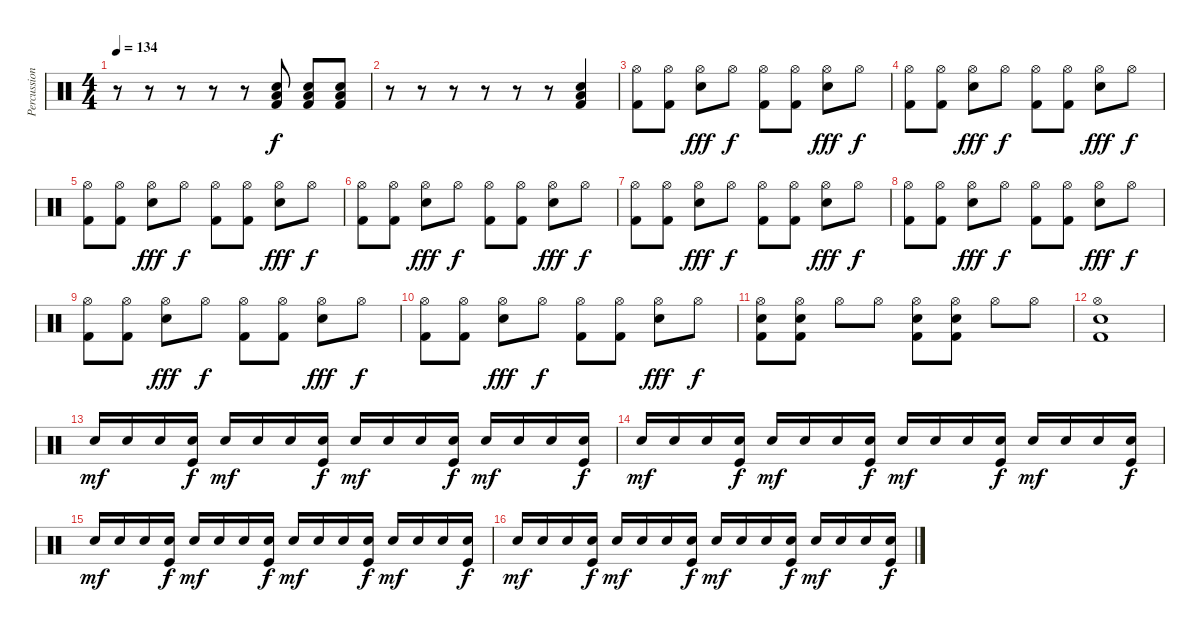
\track ("Percussion" "Percussion") {instrument percussion}
\staff {score}
\articulation defaults
\ts (4 4)
\tempo 134
\clef neutral
\ks c
r.8{dy f} r.8 r.8 r.8 r.8 ("Low Tom (hit)" "Snare (hit) 2" "Kick (hit) 2").8 ("Low Tom (hit)" "Snare (hit) 2" "Kick (hit) 2").8 ("Low Tom (hit)" "Snare (hit) 2" "Kick (hit) 2").8 |
r.8 r.8 r.8 r.8 r.8 r.8 ("Low Tom (hit)" "Snare (hit) 2" "Kick (hit) 2").4 |
("Hi-Hat (open)" "Kick (hit) 2").8 ("Hi-Hat (open)" "Kick (hit) 2").8 ("Hi-Hat (open)" "Snare (hit) 2").8{dy fff} "Hi-Hat (open)".8{dy f} ("Hi-Hat (open)" "Kick (hit) 2").8 ("Hi-Hat (open)" "Kick (hit) 2").8 ("Hi-Hat (open)" "Snare (hit) 2").8{dy fff} "Hi-Hat (open)".8{dy f} |
("Hi-Hat (open)" "Kick (hit) 2").8 ("Hi-Hat (open)" "Kick (hit) 2").8 ("Hi-Hat (open)" "Snare (hit) 2").8{dy fff} "Hi-Hat (open)".8{dy f} ("Hi-Hat (open)" "Kick (hit) 2").8 ("Hi-Hat (open)" "Kick (hit) 2").8 ("Hi-Hat (open)" "Snare (hit) 2").8{dy fff} "Hi-Hat (open)".8{dy f} |
("Hi-Hat (open)" "Kick (hit) 2").8 ("Hi-Hat (open)" "Kick (hit) 2").8 ("Hi-Hat (open)" "Snare (hit) 2").8{dy fff} "Hi-Hat (open)".8{dy f} ("Hi-Hat (open)" "Kick (hit) 2").8 ("Hi-Hat (open)" "Kick (hit) 2").8 ("Hi-Hat (open)" "Snare (hit) 2").8{dy fff} "Hi-Hat (open)".8{dy f} |
("Hi-Hat (open)" "Kick (hit) 2").8 ("Hi-Hat (open)" "Kick (hit) 2").8 ("Hi-Hat (open)" "Snare (hit) 2").8{dy fff} "Hi-Hat (open)".8{dy f} ("Hi-Hat (open)" "Kick (hit) 2").8 ("Hi-Hat (open)" "Kick (hit) 2").8 ("Hi-Hat (open)" "Snare (hit) 2").8{dy fff} "Hi-Hat (open)".8{dy f} |
("Hi-Hat (open)" "Kick (hit) 2").8 ("Hi-Hat (open)" "Kick (hit) 2").8 ("Hi-Hat (open)" "Snare (hit) 2").8{dy fff} "Hi-Hat (open)".8{dy f} ("Hi-Hat (open)" "Kick (hit) 2").8 ("Hi-Hat (open)" "Kick (hit) 2").8 ("Hi-Hat (open)" "Snare (hit) 2").8{dy fff} "Hi-Hat (open)".8{dy f} |
("Hi-Hat (open)" "Kick (hit) 2").8 ("Hi-Hat (open)" "Kick (hit) 2").8 ("Hi-Hat (open)" "Snare (hit) 2").8{dy fff} "Hi-Hat (open)".8{dy f} ("Hi-Hat (open)" "Kick (hit) 2").8 ("Hi-Hat (open)" "Kick (hit) 2").8 ("Hi-Hat (open)" "Snare (hit) 2").8{dy fff} "Hi-Hat (open)".8{dy f} |
("Hi-Hat (open)" "Kick (hit) 2").8 ("Hi-Hat (open)" "Kick (hit) 2").8 ("Hi-Hat (open)" "Snare (hit) 2").8{dy fff} "Hi-Hat (open)".8{dy f} ("Hi-Hat (open)" "Kick (hit) 2").8 ("Hi-Hat (open)" "Kick (hit) 2").8 ("Hi-Hat (open)" "Snare (hit) 2").8{dy fff} "Hi-Hat (open)".8{dy f} |
("Hi-Hat (open)" "Kick (hit) 2").8 ("Hi-Hat (open)" "Kick (hit) 2").8 ("Hi-Hat (open)" "Snare (hit) 2").8{dy fff} "Hi-Hat (open)".8{dy f} ("Hi-Hat (open)" "Kick (hit) 2").8 ("Hi-Hat (open)" "Kick (hit) 2").8 ("Hi-Hat (open)" "Snare (hit) 2").8{dy fff} "Hi-Hat (open)".8{dy f} |
("Hi-Hat (open)" "Snare (hit) 2" "Kick (hit) 2").8 ("Hi-Hat (open)" "Snare (hit) 2" "Kick (hit) 2").8 "Hi-Hat (open)".8 "Hi-Hat (open)".8 ("Hi-Hat (open)" "Snare (hit) 2" "Kick (hit) 2").8 ("Hi-Hat (open)" "Snare (hit) 2" "Kick (hit) 2").8 "Hi-Hat (open)".8 "Hi-Hat (open)".8 |
("Hi-Hat (open)" "Snare (hit) 2" "Kick (hit) 2").1 |
"Snare (hit) 2".16{dy mf} "Snare (hit) 2".16 "Snare (hit) 2".16 ("Snare (hit) 2" "Kick (hit)").16{dy f} "Snare (hit) 2".16{dy mf} "Snare (hit) 2".16 "Snare (hit) 2".16 ("Snare (hit) 2" "Kick (hit)").16{dy f} "Snare (hit) 2".16{dy mf} "Snare (hit) 2".16 "Snare (hit) 2".16 ("Snare (hit) 2" "Kick (hit)").16{dy f} "Snare (hit) 2".16{dy mf} "Snare (hit) 2".16 "Snare (hit) 2".16 ("Snare (hit) 2" "Kick (hit)").16{dy f} |
"Snare (hit) 2".16{dy mf} "Snare (hit) 2".16 "Snare (hit) 2".16 ("Snare (hit) 2" "Kick (hit)").16{dy f} "Snare (hit) 2".16{dy mf} "Snare (hit) 2".16 "Snare (hit) 2".16 ("Snare (hit) 2" "Kick (hit)").16{dy f} "Snare (hit) 2".16{dy mf} "Snare (hit) 2".16 "Snare (hit) 2".16 ("Snare (hit) 2" "Kick (hit)").16{dy f} "Snare (hit) 2".16{dy mf} "Snare (hit) 2".16 "Snare (hit) 2".16 ("Snare (hit) 2" "Kick (hit)").16{dy f} |
"Snare (hit) 2".16{dy mf} "Snare (hit) 2".16 "Snare (hit) 2".16 ("Snare (hit) 2" "Kick (hit)").16{dy f} "Snare (hit) 2".16{dy mf} "Snare (hit) 2".16 "Snare (hit) 2".16 ("Snare (hit) 2" "Kick (hit)").16{dy f} "Snare (hit) 2".16{dy mf} "Snare (hit) 2".16 "Snare (hit) 2".16 ("Snare (hit) 2" "Kick (hit)").16{dy f} "Snare (hit) 2".16{dy mf} "Snare (hit) 2".16 "Snare (hit) 2".16 ("Snare (hit) 2" "Kick (hit)").16{dy f} |
"Snare (hit) 2".16{dy mf} "Snare (hit) 2".16 "Snare (hit) 2".16 ("Snare (hit) 2" "Kick (hit)").16{dy f} "Snare (hit) 2".16{dy mf} "Snare (hit) 2".16 "Snare (hit) 2".16 ("Snare (hit) 2" "Kick (hit)").16{dy f} "Snare (hit) 2".16{dy mf} "Snare (hit) 2".16 "Snare (hit) 2".16 ("Snare (hit) 2" "Kick (hit)").16{dy f} "Snare (hit) 2".16{dy mf} "Snare (hit) 2".16 "Snare (hit) 2".16 ("Snare (hit) 2" "Kick (hit)").16{dy f}
